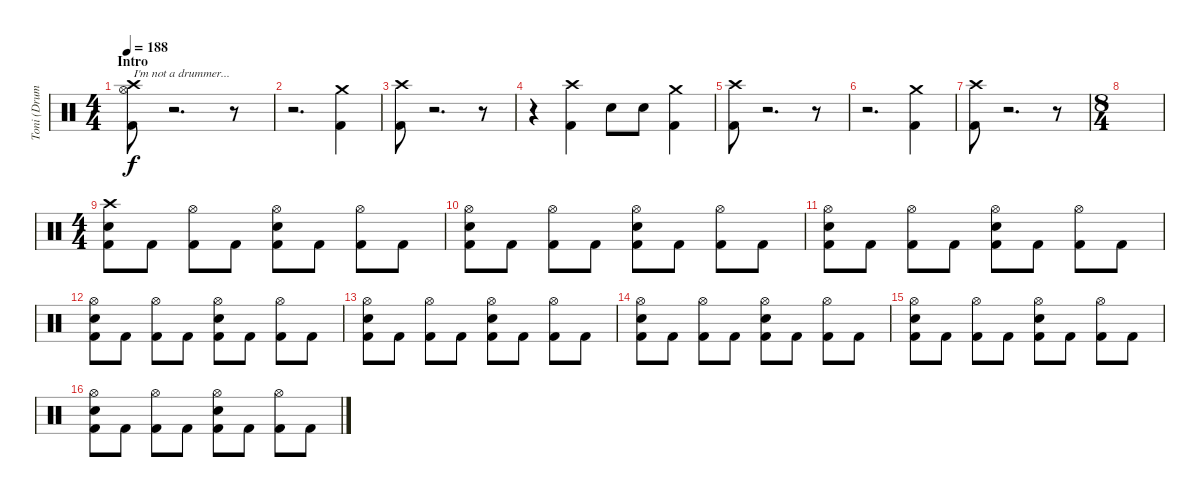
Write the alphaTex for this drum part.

\track ("Toni (Drums)" "Toni (Drum") {instrument percussion}
\staff {score}
\articulation defaults
\ts (4 4)
\section ("" "Intro")
\tempo 188
\clef neutral
\ks c
("Crash high (hit)" "Hi-Hat (open)" "Kick (hit) 2").8{txt "I'm not a drummer..." dy f} r.2{d} r.8 |
r.2{d} ("Crash medium (hit)" "Kick (hit) 2").4 |
("Crash high (hit)" "Kick (hit) 2").8 r.2{d} r.8 |
r.4 ("Crash high (hit)" "Kick (hit) 2").4 "Electric Snare (hit)".8 "Electric Snare (hit)".8 ("Crash medium (hit)" "Kick (hit) 2").4 |
("Crash high (hit)" "Kick (hit) 2").8 r.2{d} r.8 |
r.2{d} ("Crash medium (hit)" "Kick (hit) 2").4 |
("Crash high (hit)" "Kick (hit) 2").8 r.2{d} r.8 |
\ts (8 4)
|
\ts (4 4)
("Crash high (hit)" "Electric Snare (hit)" "Kick (hit) 2").8 "Kick (hit) 2".8 ("Hi-Hat (open)" "Kick (hit) 2").8 "Kick (hit) 2".8 ("Hi-Hat (open)" "Electric Snare (hit)" "Kick (hit) 2").8 "Kick (hit) 2".8 ("Hi-Hat (open)" "Kick (hit) 2").8 "Kick (hit) 2".8 |
("Hi-Hat (open)" "Electric Snare (hit)" "Kick (hit) 2").8 "Kick (hit) 2".8 ("Hi-Hat (open)" "Kick (hit) 2").8 "Kick (hit) 2".8 ("Hi-Hat (open)" "Electric Snare (hit)" "Kick (hit) 2").8 "Kick (hit) 2".8 ("Hi-Hat (open)" "Kick (hit) 2").8 "Kick (hit) 2".8 |
("Hi-Hat (open)" "Electric Snare (hit)" "Kick (hit) 2").8 "Kick (hit) 2".8 ("Hi-Hat (open)" "Kick (hit) 2").8 "Kick (hit) 2".8 ("Hi-Hat (open)" "Electric Snare (hit)" "Kick (hit) 2").8 "Kick (hit) 2".8 ("Hi-Hat (open)" "Kick (hit) 2").8 "Kick (hit) 2".8 |
("Hi-Hat (open)" "Electric Snare (hit)" "Kick (hit) 2").8 "Kick (hit) 2".8 ("Hi-Hat (open)" "Kick (hit) 2").8 "Kick (hit) 2".8 ("Hi-Hat (open)" "Electric Snare (hit)" "Kick (hit) 2").8 "Kick (hit) 2".8 ("Hi-Hat (open)" "Kick (hit) 2").8 "Kick (hit) 2".8 |
("Hi-Hat (open)" "Electric Snare (hit)" "Kick (hit) 2").8 "Kick (hit) 2".8 ("Hi-Hat (open)" "Kick (hit) 2").8 "Kick (hit) 2".8 ("Hi-Hat (open)" "Electric Snare (hit)" "Kick (hit) 2").8 "Kick (hit) 2".8 ("Hi-Hat (open)" "Kick (hit) 2").8 "Kick (hit) 2".8 |
("Hi-Hat (open)" "Electric Snare (hit)" "Kick (hit) 2").8 "Kick (hit) 2".8 ("Hi-Hat (open)" "Kick (hit) 2").8 "Kick (hit) 2".8 ("Hi-Hat (open)" "Electric Snare (hit)" "Kick (hit) 2").8 "Kick (hit) 2".8 ("Hi-Hat (open)" "Kick (hit) 2").8 "Kick (hit) 2".8 |
("Hi-Hat (open)" "Electric Snare (hit)" "Kick (hit) 2").8 "Kick (hit) 2".8 ("Hi-Hat (open)" "Kick (hit) 2").8 "Kick (hit) 2".8 ("Hi-Hat (open)" "Electric Snare (hit)" "Kick (hit) 2").8 "Kick (hit) 2".8 ("Hi-Hat (open)" "Kick (hit) 2").8 "Kick (hit) 2".8 |
("Hi-Hat (open)" "Electric Snare (hit)" "Kick (hit) 2").8 "Kick (hit) 2".8 ("Hi-Hat (open)" "Kick (hit) 2").8 "Kick (hit) 2".8 ("Hi-Hat (open)" "Electric Snare (hit)" "Kick (hit) 2").8 "Kick (hit) 2".8 ("Hi-Hat (open)" "Kick (hit) 2").8 "Kick (hit) 2".8
